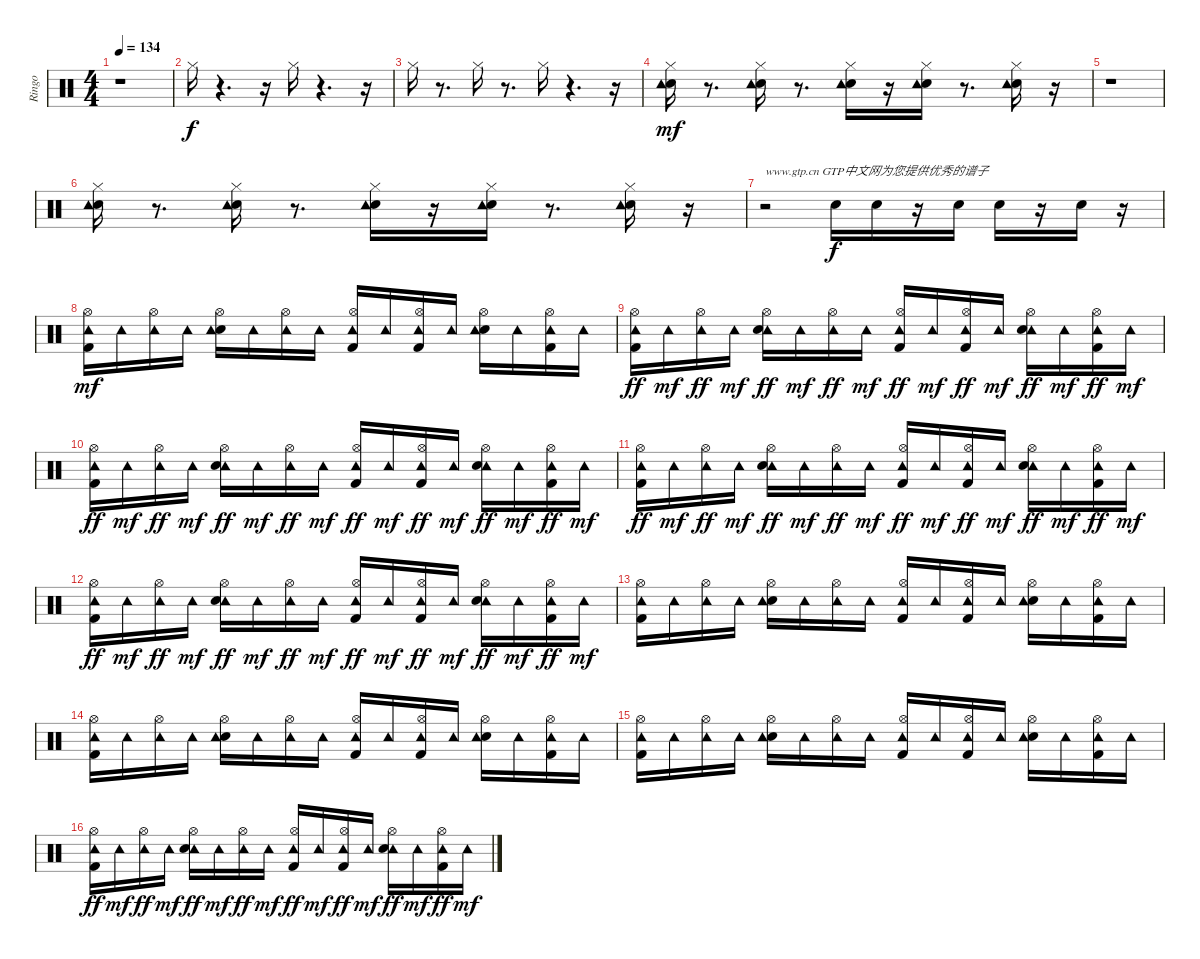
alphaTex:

\track ("Ringo" "Ringo") {instrument percussion}
\staff {score}
\articulation defaults
\ts (4 4)
\tempo 134
\clef neutral
\ks c
r.1{dy f} |
"Hi-Hat (closed)".16 r.4{d} r.16 "Hi-Hat (closed)".16 r.4{d} r.16 |
"Hi-Hat (closed)".16 r.8{d} "Hi-Hat (closed)".16 r.8{d} "Hi-Hat (closed)".16 r.4{d} r.16 |
("Snare (hit) 2" "Tambourine (hit)" "Hi-Hat (closed)").16{dy mf} r.8{d} ("Snare (hit) 2" "Tambourine (hit)" "Hi-Hat (closed)").16 r.8{d} ("Snare (hit) 2" "Tambourine (hit)" "Hi-Hat (closed)").16 r.16 ("Snare (hit) 2" "Tambourine (hit)" "Hi-Hat (closed)").16 r.8{d} ("Snare (hit) 2" "Tambourine (hit)" "Hi-Hat (closed)").16 r.16 |
r.1 |
("Snare (hit) 2" "Tambourine (hit)" "Hi-Hat (closed)").16 r.8{d} ("Snare (hit) 2" "Tambourine (hit)" "Hi-Hat (closed)").16 r.8{d} ("Snare (hit) 2" "Tambourine (hit)" "Hi-Hat (closed)").16 r.16 ("Snare (hit) 2" "Tambourine (hit)" "Hi-Hat (closed)").16 r.8{d} ("Snare (hit) 2" "Tambourine (hit)" "Hi-Hat (closed)").16 r.16 |
r.2{txt "www.gtp.cn GTP中文网为您提供优秀的谱子"} "Snare (hit) 2".16{dy f} "Snare (hit) 2".16 r.16 "Snare (hit) 2".16 "Snare (hit) 2".16 r.16 "Snare (hit) 2".16 r.16 |
("Hi-Hat (open)" "Kick (hit) 2" "Tambourine (hit)").16{dy mf} "Tambourine (hit)".16 ("Hi-Hat (open)" "Tambourine (hit)").16 "Tambourine (hit)".16 ("Hi-Hat (open)" "Snare (hit) 2" "Tambourine (hit)").16 "Tambourine (hit)".16 ("Hi-Hat (open)" "Tambourine (hit)").16 "Tambourine (hit)".16 ("Hi-Hat (open)" "Kick (hit) 2" "Tambourine (hit)").16 "Tambourine (hit)".16 ("Hi-Hat (open)" "Kick (hit) 2" "Tambourine (hit)").16 "Tambourine (hit)".16 ("Hi-Hat (open)" "Snare (hit) 2" "Tambourine (hit)").16 "Tambourine (hit)".16 ("Hi-Hat (open)" "Kick (hit) 2" "Tambourine (hit)").16 "Tambourine (hit)".16 |
("Tambourine (hit)" "Kick (hit) 2" "Hi-Hat (open)").16{dy ff} "Tambourine (hit)".16{dy mf} ("Tambourine (hit)" "Hi-Hat (open)").16{dy ff} "Tambourine (hit)".16{dy mf} ("Tambourine (hit)" "Snare (hit) 2" "Hi-Hat (open)").16{dy ff} "Tambourine (hit)".16{dy mf} ("Tambourine (hit)" "Hi-Hat (open)").16{dy ff} "Tambourine (hit)".16{dy mf} ("Tambourine (hit)" "Kick (hit) 2" "Hi-Hat (open)").16{dy ff} "Tambourine (hit)".16{dy mf} ("Tambourine (hit)" "Kick (hit) 2" "Hi-Hat (open)").16{dy ff} "Tambourine (hit)".16{dy mf} ("Tambourine (hit)" "Snare (hit) 2" "Hi-Hat (open)").16{dy ff} "Tambourine (hit)".16{dy mf} ("Tambourine (hit)" "Kick (hit) 2" "Hi-Hat (open)").16{dy ff} "Tambourine (hit)".16{dy mf} |
("Tambourine (hit)" "Kick (hit) 2" "Hi-Hat (open)").16{dy ff} "Tambourine (hit)".16{dy mf} ("Tambourine (hit)" "Hi-Hat (open)").16{dy ff} "Tambourine (hit)".16{dy mf} ("Tambourine (hit)" "Snare (hit) 2" "Hi-Hat (open)").16{dy ff} "Tambourine (hit)".16{dy mf} ("Tambourine (hit)" "Hi-Hat (open)").16{dy ff} "Tambourine (hit)".16{dy mf} ("Tambourine (hit)" "Kick (hit) 2" "Hi-Hat (open)").16{dy ff} "Tambourine (hit)".16{dy mf} ("Tambourine (hit)" "Kick (hit) 2" "Hi-Hat (open)").16{dy ff} "Tambourine (hit)".16{dy mf} ("Tambourine (hit)" "Snare (hit) 2" "Hi-Hat (open)").16{dy ff} "Tambourine (hit)".16{dy mf} ("Tambourine (hit)" "Kick (hit) 2" "Hi-Hat (open)").16{dy ff} "Tambourine (hit)".16{dy mf} |
("Tambourine (hit)" "Kick (hit) 2" "Hi-Hat (open)").16{dy ff} "Tambourine (hit)".16{dy mf} ("Tambourine (hit)" "Hi-Hat (open)").16{dy ff} "Tambourine (hit)".16{dy mf} ("Tambourine (hit)" "Snare (hit) 2" "Hi-Hat (open)").16{dy ff} "Tambourine (hit)".16{dy mf} ("Tambourine (hit)" "Hi-Hat (open)").16{dy ff} "Tambourine (hit)".16{dy mf} ("Tambourine (hit)" "Kick (hit) 2" "Hi-Hat (open)").16{dy ff} "Tambourine (hit)".16{dy mf} ("Tambourine (hit)" "Kick (hit) 2" "Hi-Hat (open)").16{dy ff} "Tambourine (hit)".16{dy mf} ("Tambourine (hit)" "Snare (hit) 2" "Hi-Hat (open)").16{dy ff} "Tambourine (hit)".16{dy mf} ("Tambourine (hit)" "Kick (hit) 2" "Hi-Hat (open)").16{dy ff} "Tambourine (hit)".16{dy mf} |
("Tambourine (hit)" "Kick (hit) 2" "Hi-Hat (open)").16{dy ff} "Tambourine (hit)".16{dy mf} ("Tambourine (hit)" "Hi-Hat (open)").16{dy ff} "Tambourine (hit)".16{dy mf} ("Tambourine (hit)" "Snare (hit) 2" "Hi-Hat (open)").16{dy ff} "Tambourine (hit)".16{dy mf} ("Tambourine (hit)" "Hi-Hat (open)").16{dy ff} "Tambourine (hit)".16{dy mf} ("Tambourine (hit)" "Kick (hit) 2" "Hi-Hat (open)").16{dy ff} "Tambourine (hit)".16{dy mf} ("Tambourine (hit)" "Kick (hit) 2" "Hi-Hat (open)").16{dy ff} "Tambourine (hit)".16{dy mf} ("Tambourine (hit)" "Snare (hit) 2" "Hi-Hat (open)").16{dy ff} "Tambourine (hit)".16{dy mf} ("Tambourine (hit)" "Kick (hit) 2" "Hi-Hat (open)").16{dy ff} "Tambourine (hit)".16{dy mf} |
("Hi-Hat (open)" "Kick (hit) 2" "Tambourine (hit)").16 "Tambourine (hit)".16 ("Hi-Hat (open)" "Tambourine (hit)").16 "Tambourine (hit)".16 ("Hi-Hat (open)" "Snare (hit) 2" "Tambourine (hit)").16 "Tambourine (hit)".16 ("Hi-Hat (open)" "Tambourine (hit)").16 "Tambourine (hit)".16 ("Hi-Hat (open)" "Kick (hit) 2" "Tambourine (hit)").16 "Tambourine (hit)".16 ("Hi-Hat (open)" "Kick (hit) 2" "Tambourine (hit)").16 "Tambourine (hit)".16 ("Hi-Hat (open)" "Snare (hit) 2" "Tambourine (hit)").16 "Tambourine (hit)".16 ("Hi-Hat (open)" "Kick (hit) 2" "Tambourine (hit)").16 "Tambourine (hit)".16 |
("Hi-Hat (open)" "Kick (hit) 2" "Tambourine (hit)").16 "Tambourine (hit)".16 ("Hi-Hat (open)" "Tambourine (hit)").16 "Tambourine (hit)".16 ("Hi-Hat (open)" "Snare (hit) 2" "Tambourine (hit)").16 "Tambourine (hit)".16 ("Hi-Hat (open)" "Tambourine (hit)").16 "Tambourine (hit)".16 ("Hi-Hat (open)" "Kick (hit) 2" "Tambourine (hit)").16 "Tambourine (hit)".16 ("Hi-Hat (open)" "Kick (hit) 2" "Tambourine (hit)").16 "Tambourine (hit)".16 ("Hi-Hat (open)" "Snare (hit) 2" "Tambourine (hit)").16 "Tambourine (hit)".16 ("Hi-Hat (open)" "Kick (hit) 2" "Tambourine (hit)").16 "Tambourine (hit)".16 |
("Hi-Hat (open)" "Kick (hit) 2" "Tambourine (hit)").16 "Tambourine (hit)".16 ("Hi-Hat (open)" "Tambourine (hit)").16 "Tambourine (hit)".16 ("Hi-Hat (open)" "Snare (hit) 2" "Tambourine (hit)").16 "Tambourine (hit)".16 ("Hi-Hat (open)" "Tambourine (hit)").16 "Tambourine (hit)".16 ("Hi-Hat (open)" "Kick (hit) 2" "Tambourine (hit)").16 "Tambourine (hit)".16 ("Hi-Hat (open)" "Kick (hit) 2" "Tambourine (hit)").16 "Tambourine (hit)".16 ("Hi-Hat (open)" "Snare (hit) 2" "Tambourine (hit)").16 "Tambourine (hit)".16 ("Hi-Hat (open)" "Kick (hit) 2" "Tambourine (hit)").16 "Tambourine (hit)".16 |
("Tambourine (hit)" "Kick (hit) 2" "Hi-Hat (open)").16{dy ff} "Tambourine (hit)".16{dy mf} ("Tambourine (hit)" "Hi-Hat (open)").16{dy ff} "Tambourine (hit)".16{dy mf} ("Tambourine (hit)" "Snare (hit) 2" "Hi-Hat (open)").16{dy ff} "Tambourine (hit)".16{dy mf} ("Tambourine (hit)" "Hi-Hat (open)").16{dy ff} "Tambourine (hit)".16{dy mf} ("Tambourine (hit)" "Kick (hit) 2" "Hi-Hat (open)").16{dy ff} "Tambourine (hit)".16{dy mf} ("Tambourine (hit)" "Kick (hit) 2" "Hi-Hat (open)").16{dy ff} "Tambourine (hit)".16{dy mf} ("Tambourine (hit)" "Snare (hit) 2" "Hi-Hat (open)").16{dy ff} "Tambourine (hit)".16{dy mf} ("Tambourine (hit)" "Kick (hit) 2" "Hi-Hat (open)").16{dy ff} "Tambourine (hit)".16{dy mf}
